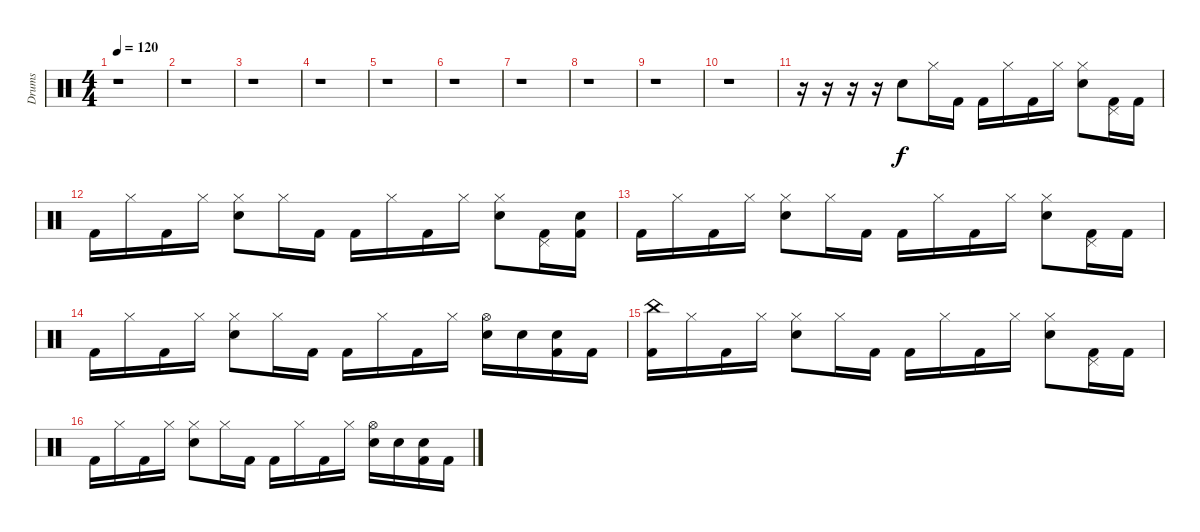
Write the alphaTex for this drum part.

\track ("Drums" "Drums") {instrument percussion}
\staff {score}
\articulation defaults
\ts (4 4)
\tempo 120
\clef neutral
\ks c
r.1{dy f} |
r.1 |
r.1 |
r.1 |
r.1 |
r.1 |
r.1 |
r.1 |
r.1 |
r.1 |
r.16 r.16 r.16 r.16 "Snare (hit) 2".8 "Hi-Hat (closed)".16 "Kick (hit) 2".16 "Kick (hit) 2".16 "Hi-Hat (closed)".16 "Kick (hit) 2".16 "Hi-Hat (closed)".16 ("Hi-Hat (closed)" "Snare (hit) 2").8 ("Pedal Hi-Hat (hit)" "Kick (hit) 2").16 "Kick (hit) 2".16 |
"Kick (hit) 2".16 "Hi-Hat (closed)".16 "Kick (hit) 2".16 "Hi-Hat (closed)".16 ("Hi-Hat (closed)" "Snare (hit) 2").8 "Hi-Hat (closed)".16 "Kick (hit) 2".16 "Kick (hit) 2".16 "Hi-Hat (closed)".16 "Kick (hit) 2".16 "Hi-Hat (closed)".16 ("Hi-Hat (closed)" "Snare (hit) 2").8 ("Pedal Hi-Hat (hit)" "Kick (hit) 2").16 ("Snare (hit) 2" "Kick (hit) 2").16 |
"Kick (hit) 2".16 "Hi-Hat (closed)".16 "Kick (hit) 2".16 "Hi-Hat (closed)".16 ("Hi-Hat (closed)" "Snare (hit) 2").8 "Hi-Hat (closed)".16 "Kick (hit) 2".16 "Kick (hit) 2".16 "Hi-Hat (closed)".16 "Kick (hit) 2".16 "Hi-Hat (closed)".16 ("Hi-Hat (closed)" "Snare (hit) 2").8 ("Pedal Hi-Hat (hit)" "Kick (hit) 2").16 "Kick (hit) 2".16 |
"Kick (hit) 2".16 "Hi-Hat (closed)".16 "Kick (hit) 2".16 "Hi-Hat (closed)".16 ("Hi-Hat (closed)" "Snare (hit) 2").8 "Hi-Hat (closed)".16 "Kick (hit) 2".16 "Kick (hit) 2".16 "Hi-Hat (closed)".16 "Kick (hit) 2".16 "Hi-Hat (closed)".16 ("Hi-Hat (open)" "Electric Snare (hit)").16 "Electric Snare (hit)".16 ("Snare (hit) 2" "Kick (hit) 2").16 "Kick (hit) 2".16 |
("China (hit)" "Kick (hit) 2").16 "Hi-Hat (closed)".16 "Kick (hit) 2".16 "Hi-Hat (closed)".16 ("Hi-Hat (closed)" "Snare (hit) 2").8 "Hi-Hat (closed)".16 "Kick (hit) 2".16 "Kick (hit) 2".16 "Hi-Hat (closed)".16 "Kick (hit) 2".16 "Hi-Hat (closed)".16 ("Hi-Hat (closed)" "Snare (hit) 2").8 ("Pedal Hi-Hat (hit)" "Kick (hit) 2").16 "Kick (hit) 2".16 |
"Kick (hit) 2".16 "Hi-Hat (closed)".16 "Kick (hit) 2".16 "Hi-Hat (closed)".16 ("Hi-Hat (closed)" "Snare (hit) 2").8 "Hi-Hat (closed)".16 "Kick (hit) 2".16 "Kick (hit) 2".16 "Hi-Hat (closed)".16 "Kick (hit) 2".16 "Hi-Hat (closed)".16 ("Hi-Hat (open)" "Electric Snare (hit)").16 "Electric Snare (hit)".16 ("Snare (hit) 2" "Kick (hit) 2").16 "Kick (hit) 2".16
